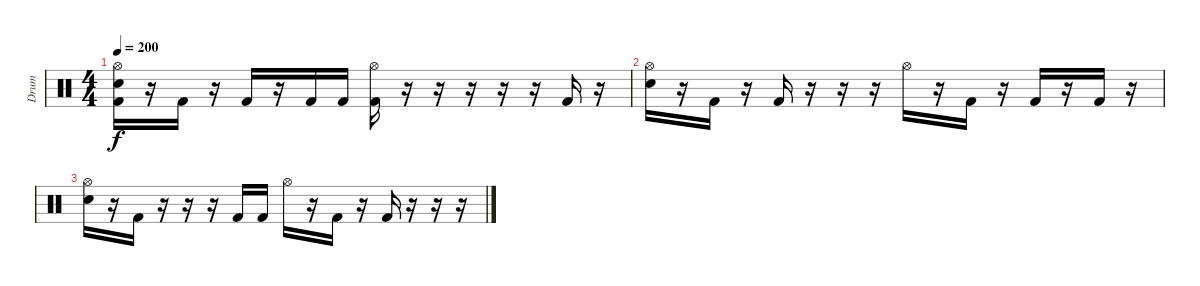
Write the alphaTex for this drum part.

\track ("Drum" "Drum") {instrument percussion}
\staff {score}
\articulation defaults
\ts (4 4)
\tempo 200
\clef neutral
\ks c
("Hi-Hat (open)" "Electric Snare (hit)" "Kick (hit) 2").16{dy f} r.16 "Kick (hit) 2".16 r.16 "Kick (hit) 2".16 r.16 "Kick (hit) 2".16 "Kick (hit) 2".16 ("Hi-Hat (open)" "Kick (hit) 2").16 r.16 r.16 r.16 r.16 r.16 "Kick (hit) 2".16 r.16 |
("Hi-Hat (open)" "Electric Snare (hit)").16 r.16 "Kick (hit) 2".16 r.16 "Kick (hit) 2".16 r.16 r.16 r.16 "Hi-Hat (open)".16 r.16 "Kick (hit) 2".16 r.16 "Kick (hit) 2".16 r.16 "Kick (hit) 2".16 r.16 |
("Hi-Hat (open)" "Electric Snare (hit)").16 r.16 "Kick (hit) 2".16 r.16 r.16 r.16 "Kick (hit) 2".16 "Kick (hit) 2".16 "Hi-Hat (open)".16 r.16 "Kick (hit) 2".16 r.16 "Kick (hit) 2".16 r.16 r.16 r.16
